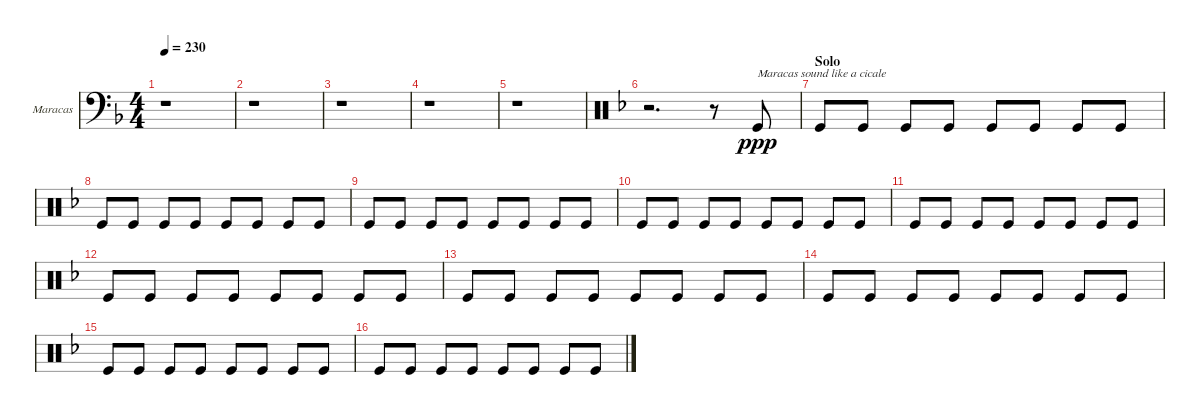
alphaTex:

\defaultSystemsLayout 4
\bracketExtendMode groupsimilarinstruments
\firstSystemTrackNameOrientation horizontal
\otherSystemsTrackNameOrientation horizontal
\track ("Maracas" "Maracas") {instrument percussion}
\staff {score}
\articulation defaults
\ts (4 4)
\tempo 230
\clef f4
\scale
0.333333
\ks dminor
r.1{dy ppp} |
\scale
0.333333 r.1 |
\scale
0.333333 r.1 |
\scale
0.333333 r.1 |
\scale
0.333333 r.1 |
\clef neutral
\scale
0.333333 r.2{d} r.8 "Kick (hit)".8{txt "Maracas sound like a cicale"} |
\section ("" "Solo")
\scale
0.333333 "Kick (hit)".8 "Kick (hit)".8 "Kick (hit)".8 "Kick (hit)".8 "Kick (hit)".8 "Kick (hit)".8 "Kick (hit)".8 "Kick (hit)".8 |
\scale
0.333333 "Kick (hit)".8 "Kick (hit)".8 "Kick (hit)".8 "Kick (hit)".8 "Kick (hit)".8 "Kick (hit)".8 "Kick (hit)".8 "Kick (hit)".8 |
\scale
0.333333 "Kick (hit)".8 "Kick (hit)".8 "Kick (hit)".8 "Kick (hit)".8 "Kick (hit)".8 "Kick (hit)".8 "Kick (hit)".8 "Kick (hit)".8 |
\scale
0.333333 "Kick (hit)".8 "Kick (hit)".8 "Kick (hit)".8 "Kick (hit)".8 "Kick (hit)".8 "Kick (hit)".8 "Kick (hit)".8 "Kick (hit)".8 |
\scale
0.333333 "Kick (hit)".8 "Kick (hit)".8 "Kick (hit)".8 "Kick (hit)".8 "Kick (hit)".8 "Kick (hit)".8 "Kick (hit)".8 "Kick (hit)".8 |
\scale
0.333333 "Kick (hit)".8 "Kick (hit)".8 "Kick (hit)".8 "Kick (hit)".8 "Kick (hit)".8 "Kick (hit)".8 "Kick (hit)".8 "Kick (hit)".8 |
\scale
0.333333 "Kick (hit)".8 "Kick (hit)".8 "Kick (hit)".8 "Kick (hit)".8 "Kick (hit)".8 "Kick (hit)".8 "Kick (hit)".8 "Kick (hit)".8 |
\scale
0.333333 "Kick (hit)".8 "Kick (hit)".8 "Kick (hit)".8 "Kick (hit)".8 "Kick (hit)".8 "Kick (hit)".8 "Kick (hit)".8 "Kick (hit)".8 |
\scale
0.333333 "Kick (hit)".8 "Kick (hit)".8 "Kick (hit)".8 "Kick (hit)".8 "Kick (hit)".8 "Kick (hit)".8 "Kick (hit)".8 "Kick (hit)".8 |
\scale
0.333333 "Kick (hit)".8 "Kick (hit)".8 "Kick (hit)".8 "Kick (hit)".8 "Kick (hit)".8 "Kick (hit)".8 "Kick (hit)".8 "Kick (hit)".8
